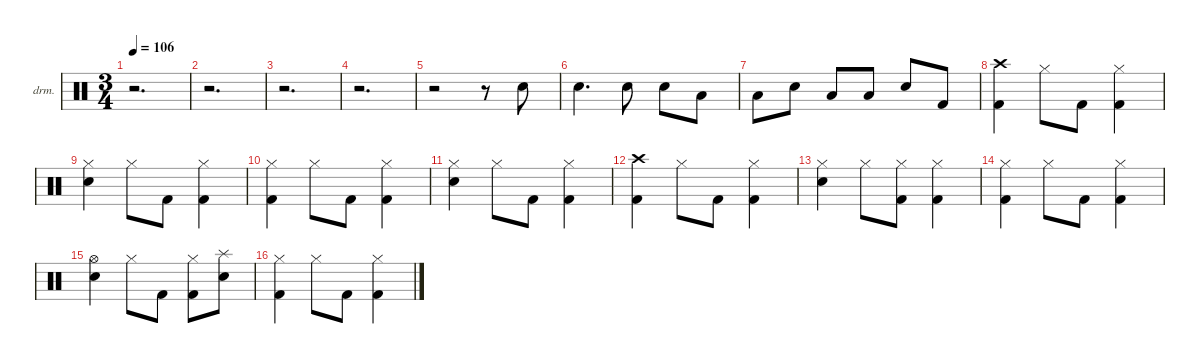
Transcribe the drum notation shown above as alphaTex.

\defaultSystemsLayout 4
\hideDynamics
\bracketExtendMode nobrackets
\firstSystemTrackNameOrientation horizontal
\otherSystemsTrackNameOrientation horizontal
\track ("Lars Ulrich" "drm.") {instrument percussion}
\staff {score}
\articulation defaults
\ts (3 4)
\tempo 106
\clef neutral
\ks c
r.2{d dy f} |
r.2{d} |
r.2{d} |
r.2{d} |
r.2 r.8 "Snare (hit) 2".8 |
"Snare (hit) 2".4{d} "Snare (hit) 2".8 "Snare (hit) 2".8 "Low Tom (hit)".8 |
"Low Tom (hit)".8 "Snare (hit) 2".8 "Low Tom (hit)".8 "Low Tom (hit)".8 "Snare (hit) 2".8 "Kick (hit) 2".8 |
("Crash high (hit)" "Kick (hit) 2").4 "Hi-Hat (closed)".8 "Kick (hit) 2".8 ("Hi-Hat (closed)" "Kick (hit) 2").4 |
("Hi-Hat (closed)" "Snare (hit) 2").4 "Hi-Hat (closed)".8 "Kick (hit) 2".8 ("Hi-Hat (closed)" "Kick (hit) 2").4 |
("Hi-Hat (closed)" "Kick (hit) 2").4 "Hi-Hat (closed)".8 "Kick (hit) 2".8 ("Hi-Hat (closed)" "Kick (hit) 2").4 |
("Hi-Hat (closed)" "Snare (hit) 2").4 "Hi-Hat (closed)".8 "Kick (hit) 2".8 ("Hi-Hat (closed)" "Kick (hit) 2").4 |
("Crash high (hit)" "Kick (hit) 2").4 "Hi-Hat (closed)".8 "Kick (hit) 2".8 ("Hi-Hat (closed)" "Kick (hit) 2").4 |
("Hi-Hat (closed)" "Snare (hit) 2").4 "Hi-Hat (closed)".8 ("Hi-Hat (closed)" "Kick (hit) 2").8 ("Hi-Hat (closed)" "Kick (hit) 2").4 |
("Hi-Hat (closed)" "Kick (hit) 2").4 "Hi-Hat (closed)".8 "Kick (hit) 2".8 ("Hi-Hat (closed)" "Kick (hit) 2").4 |
("Hi-Hat (open)" "Snare (hit) 2").4 "Hi-Hat (closed)".8 "Kick (hit) 2".8 ("Hi-Hat (closed)" "Kick (hit) 2").8 ("Splash (hit)" "Snare (hit) 2").8{dy fff} |
("Hi-Hat (closed)" "Kick (hit) 2").4{dy f} "Hi-Hat (closed)".8 "Kick (hit) 2".8 ("Hi-Hat (closed)" "Kick (hit) 2").4
